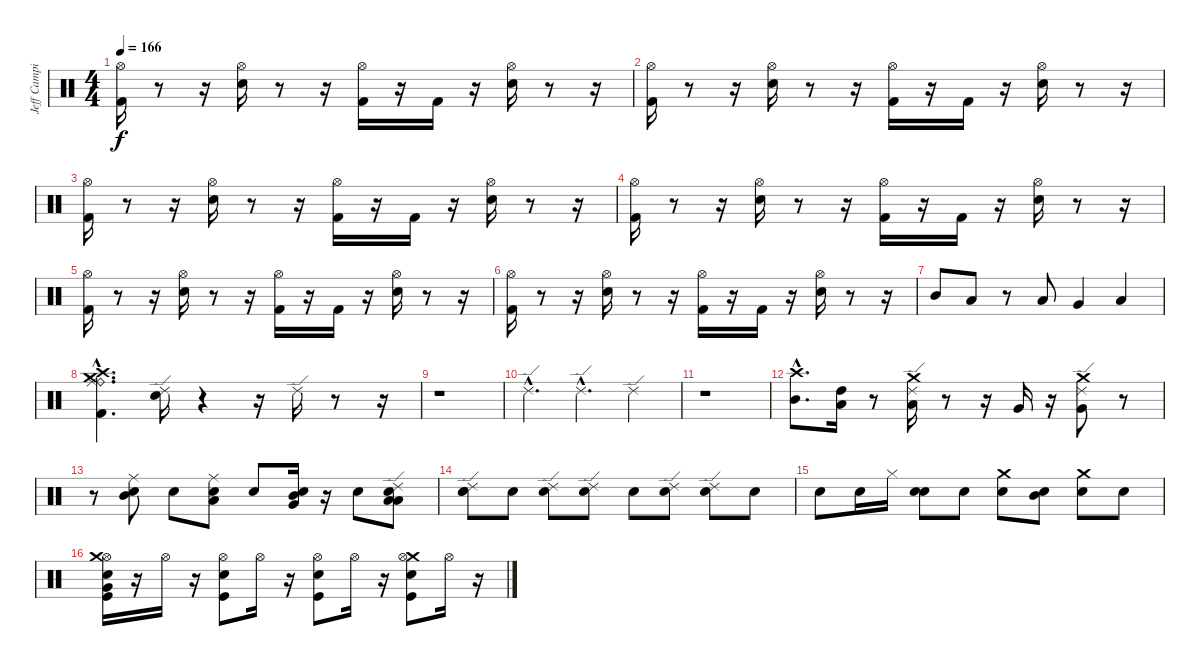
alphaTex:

\track ("Jeff Campitelli" "Jeff Campi") {instrument percussion}
\staff {score}
\articulation defaults
\ts (4 4)
\tempo 166
\clef neutral
\ks c
("Hi-Hat (open)" "Kick (hit) 2").16{dy f} r.8 r.16 ("Snare (hit) 2" "Hi-Hat (open)").16 r.8 r.16 ("Kick (hit) 2" "Hi-Hat (open)").16 r.16 "Kick (hit) 2".16 r.16 ("Hi-Hat (open)" "Snare (hit) 2").16 r.8 r.16 |
("Hi-Hat (open)" "Kick (hit) 2").16 r.8 r.16 ("Snare (hit) 2" "Hi-Hat (open)").16 r.8 r.16 ("Kick (hit) 2" "Hi-Hat (open)").16 r.16 "Kick (hit) 2".16 r.16 ("Hi-Hat (open)" "Snare (hit) 2").16 r.8 r.16 |
("Hi-Hat (open)" "Kick (hit) 2").16 r.8 r.16 ("Snare (hit) 2" "Hi-Hat (open)").16 r.8 r.16 ("Kick (hit) 2" "Hi-Hat (open)").16 r.16 "Kick (hit) 2".16 r.16 ("Hi-Hat (open)" "Snare (hit) 2").16 r.8 r.16 |
("Hi-Hat (open)" "Kick (hit) 2").16 r.8 r.16 ("Snare (hit) 2" "Hi-Hat (open)").16 r.8 r.16 ("Kick (hit) 2" "Hi-Hat (open)").16 r.16 "Kick (hit) 2".16 r.16 ("Hi-Hat (open)" "Snare (hit) 2").16 r.8 r.16 |
("Hi-Hat (open)" "Kick (hit) 2").16 r.8 r.16 ("Snare (hit) 2" "Hi-Hat (open)").16 r.8 r.16 ("Kick (hit) 2" "Hi-Hat (open)").16 r.16 "Kick (hit) 2".16 r.16 ("Hi-Hat (open)" "Snare (hit) 2").16 r.8 r.16 |
("Hi-Hat (open)" "Kick (hit) 2").16 r.8 r.16 ("Snare (hit) 2" "Hi-Hat (open)").16 r.8 r.16 ("Kick (hit) 2" "Hi-Hat (open)").16 r.16 "Kick (hit) 2".16 r.16 ("Hi-Hat (open)" "Snare (hit) 2").16 r.8 r.16 |
"Mid Tom (hit)".8 "Low Tom (hit)".8 r.8 "Low Tom (hit)".8 "Very Low Tom (hit)".4 "Low Floor Tom (hit)".4 |
("Ride (bell)"{hac} "Crash high (hit)"{hac} "Ride (middle)"{hac} "Crash medium (hit)"{hac} "Kick (hit) 2"{hac}).4{d} ("Snare (hit)" "Ride (edge) 2").16 r.4 r.16 "Ride (edge) 2".16 r.8 r.16 |
r.1 |
"Ride (edge) 2"{hac}.4{d} "Ride (edge) 2"{hac}.4{d} "Ride (edge) 2".4 |
r.1 |
("Mid Tom (hit)"{hac} "Crash high (hit)"{hac}).8{d} ("Low Tom (hit)" "High Tom (hit)").16 r.8 ("Crash medium (hit)" "Ride (edge) 2" "Low Tom (hit)").16 r.8 r.16 "Very Low Tom (hit)".16 r.16 ("Ride (edge) 2" "Crash medium (hit)" "Very Low Tom (hit)").8 r.8 |
r.8 ("Mid Tom (hit)" "Ride (middle)" "Snare (hit) 2").8 "Snare (hit) 2".8 ("Ride (middle)" "Low Tom (hit)" "Snare (hit) 2").8 "Snare (hit) 2".8 ("Very Low Tom (hit)" "Snare (hit) 2" "Mid Tom (hit)").16 r.16 "Snare (hit) 2".8 ("Ride (edge) 2" "Low Floor Tom (hit)" "Snare (hit) 2" "Low Tom (hit)").8 |
("Snare (hit)" "Ride (edge) 2" "Snare (hit) 2").8 "Snare (hit) 2".8 ("Ride (edge) 2" "Snare (hit) 2").8 ("Ride (edge) 2" "Snare (hit) 2").8 "Snare (hit) 2".8 ("Ride (edge) 2" "Snare (hit) 2").8 ("Ride (edge) 2" "Snare (hit) 2").8 "Snare (hit) 2".8 |
"Snare (hit) 2".8 "Snare (hit) 2".16 "Hi-Hat (closed)".16 ("Snare (hit)" "Snare (hit) 2").8 "Snare (hit) 2".8 ("Crash medium (hit)" "Snare (hit) 2").8 ("Mid Tom (hit)" "Snare (hit) 2").8 ("Crash medium (hit)" "Snare (hit) 2").8 "Snare (hit) 2".8 |
("Kick (hit)" "Hi-Hat (open)" "Electric Snare (hit)" "Very Low Tom (hit)" "Crash medium (hit)").16 r.16 "Hi-Hat (open)".16 r.16 ("Kick (hit)" "Hi-Hat (open)" "Electric Snare (hit)").8 "Hi-Hat (open)".16 r.16 ("Kick (hit)" "Hi-Hat (open)" "Electric Snare (hit)").8 "Hi-Hat (open)".16 r.16 ("Kick (hit)" "Crash medium (hit)" "Hi-Hat (open)" "Electric Snare (hit)").8 "Hi-Hat (open)".16 r.16
